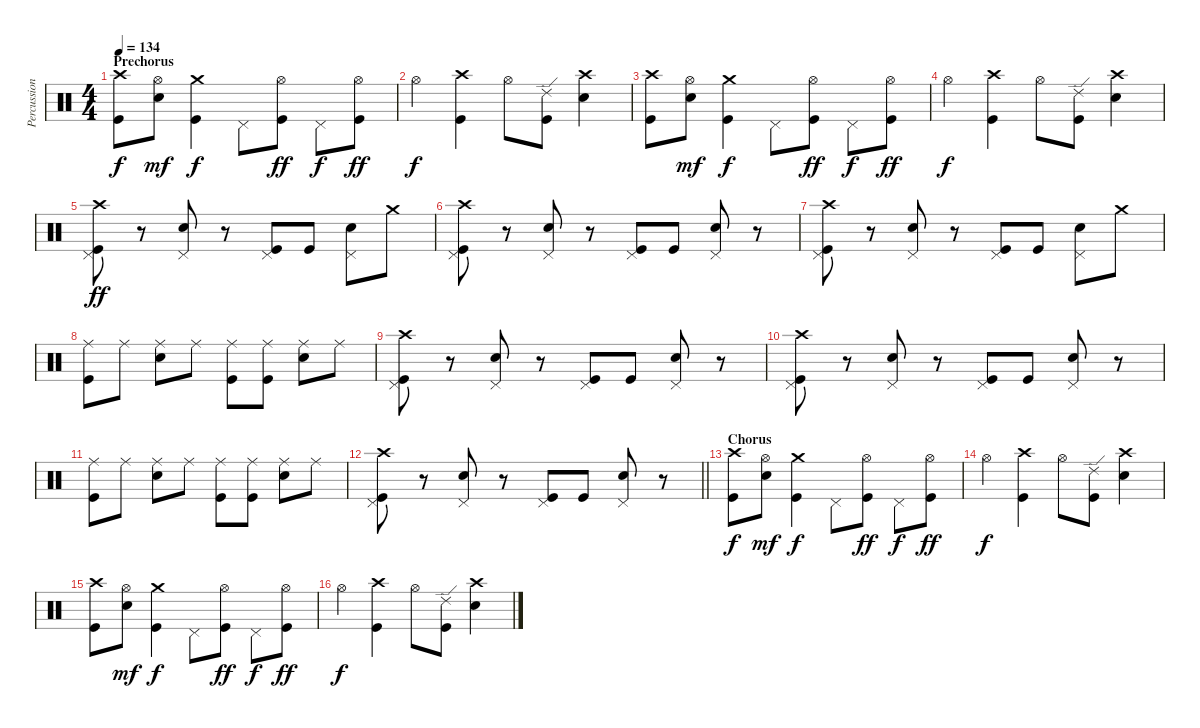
\track ("Percussion" "Percussion") {instrument percussion}
\staff {score}
\articulation defaults
\ts (4 4)
\section ("" "Prechorus")
\tempo 134
\clef neutral
\ks c
("Crash high (hit)" "Kick (hit)").8{dy f} ("Hi-Hat (open)" "Electric Snare (hit)").8{dy mf} ("Crash medium (hit)" "Kick (hit)").4{dy f} "Pedal Hi-Hat (hit)".8 ("Hi-Hat (open)" "Kick (hit)").8{dy ff} "Pedal Hi-Hat (hit)".8{dy f} ("Hi-Hat (open)" "Kick (hit)").8{dy ff} |
"Hi-Hat (open)".4{dy f} ("Crash high (hit)" "Kick (hit)").4 "Hi-Hat (open)".8 ("Ride (edge) 2" "Kick (hit)").8 ("Crash high (hit)" "Electric Snare (hit)").4 |
("Crash high (hit)" "Kick (hit)").8 ("Hi-Hat (open)" "Electric Snare (hit)").8{dy mf} ("Crash medium (hit)" "Kick (hit)").4{dy f} "Pedal Hi-Hat (hit)".8 ("Hi-Hat (open)" "Kick (hit)").8{dy ff} "Pedal Hi-Hat (hit)".8{dy f} ("Hi-Hat (open)" "Kick (hit)").8{dy ff} |
"Hi-Hat (open)".4{dy f} ("Crash high (hit)" "Kick (hit)").4 "Hi-Hat (open)".8 ("Ride (edge) 2" "Kick (hit)").8 ("Crash high (hit)" "Electric Snare (hit)").4 |
("Crash high (hit)" "Kick (hit)" "Pedal Hi-Hat (hit)").8{dy ff} r.8 ("Electric Snare (hit)" "Pedal Hi-Hat (hit)").8 r.8 ("Kick (hit)" "Pedal Hi-Hat (hit)").8 "Kick (hit)".8 ("Electric Snare (hit)" "Pedal Hi-Hat (hit)").8 "Crash medium (hit)".8 |
("Crash high (hit)" "Kick (hit)" "Pedal Hi-Hat (hit)").8 r.8 ("Electric Snare (hit)" "Pedal Hi-Hat (hit)").8 r.8 ("Kick (hit)" "Pedal Hi-Hat (hit)").8 "Kick (hit)".8 ("Electric Snare (hit)" "Pedal Hi-Hat (hit)").8 r.8 |
("Crash high (hit)" "Kick (hit)" "Pedal Hi-Hat (hit)").8 r.8 ("Electric Snare (hit)" "Pedal Hi-Hat (hit)").8 r.8 ("Kick (hit)" "Pedal Hi-Hat (hit)").8 "Kick (hit)".8 ("Electric Snare (hit)" "Pedal Hi-Hat (hit)").8 "Crash medium (hit)".8 |
("Kick (hit)" "Ride (middle)").8 "Ride (middle)".8 ("Electric Snare (hit)" "Ride (middle)").8 "Ride (middle)".8 ("Kick (hit)" "Ride (middle)").8 ("Kick (hit)" "Ride (middle)").8 ("Electric Snare (hit)" "Ride (middle)").8 "Ride (middle)".8 |
("Crash high (hit)" "Kick (hit)" "Pedal Hi-Hat (hit)").8 r.8 ("Electric Snare (hit)" "Pedal Hi-Hat (hit)").8 r.8 ("Kick (hit)" "Pedal Hi-Hat (hit)").8 "Kick (hit)".8 ("Electric Snare (hit)" "Pedal Hi-Hat (hit)").8 r.8 |
("Crash high (hit)" "Kick (hit)" "Pedal Hi-Hat (hit)").8 r.8 ("Electric Snare (hit)" "Pedal Hi-Hat (hit)").8 r.8 ("Kick (hit)" "Pedal Hi-Hat (hit)").8 "Kick (hit)".8 ("Electric Snare (hit)" "Pedal Hi-Hat (hit)").8 r.8 |
("Kick (hit)" "Ride (middle)").8 "Ride (middle)".8 ("Electric Snare (hit)" "Ride (middle)").8 "Ride (middle)".8 ("Kick (hit)" "Ride (middle)").8 ("Kick (hit)" "Ride (middle)").8 ("Electric Snare (hit)" "Ride (middle)").8 "Ride (middle)".8 |
\barLineRight lightlight
("Crash high (hit)" "Kick (hit)" "Pedal Hi-Hat (hit)").8 r.8 ("Electric Snare (hit)" "Pedal Hi-Hat (hit)").8 r.8 ("Kick (hit)" "Pedal Hi-Hat (hit)").8 "Kick (hit)".8 ("Electric Snare (hit)" "Pedal Hi-Hat (hit)").8 r.8 |
\section ("" "Chorus")
("Crash high (hit)" "Kick (hit)").8{dy f} ("Hi-Hat (open)" "Electric Snare (hit)").8{dy mf} ("Crash medium (hit)" "Kick (hit)").4{dy f} "Pedal Hi-Hat (hit)".8 ("Hi-Hat (open)" "Kick (hit)").8{dy ff} "Pedal Hi-Hat (hit)".8{dy f} ("Hi-Hat (open)" "Kick (hit)").8{dy ff} |
"Hi-Hat (open)".4{dy f} ("Crash high (hit)" "Kick (hit)").4 "Hi-Hat (open)".8 ("Ride (edge) 2" "Kick (hit)").8 ("Crash high (hit)" "Electric Snare (hit)").4 |
("Crash high (hit)" "Kick (hit)").8 ("Hi-Hat (open)" "Electric Snare (hit)").8{dy mf} ("Crash medium (hit)" "Kick (hit)").4{dy f} "Pedal Hi-Hat (hit)".8 ("Hi-Hat (open)" "Kick (hit)").8{dy ff} "Pedal Hi-Hat (hit)".8{dy f} ("Hi-Hat (open)" "Kick (hit)").8{dy ff} |
"Hi-Hat (open)".4{dy f} ("Crash high (hit)" "Kick (hit)").4 "Hi-Hat (open)".8 ("Ride (edge) 2" "Kick (hit)").8 ("Crash high (hit)" "Electric Snare (hit)").4
